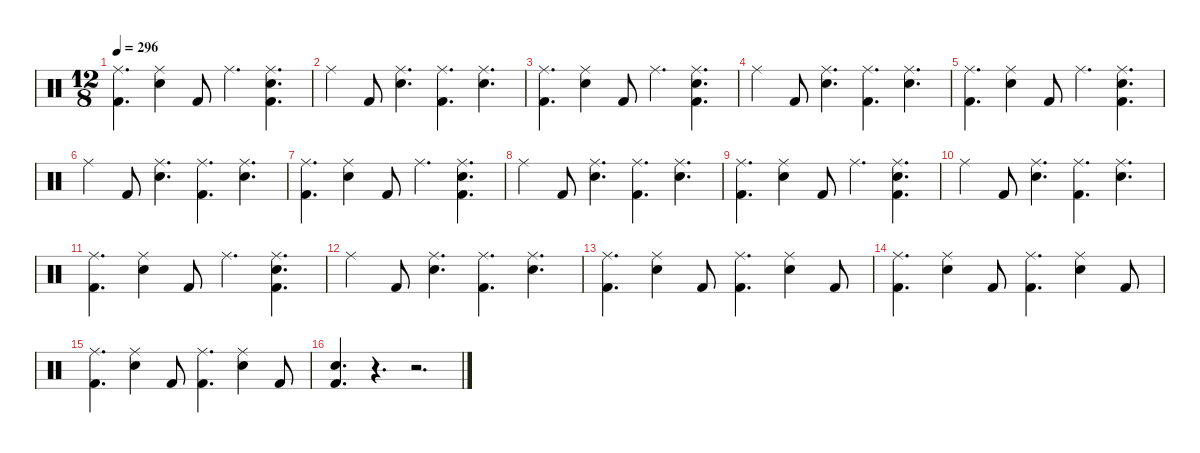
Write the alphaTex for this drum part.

\hideDynamics
\bracketExtendMode nobrackets
\singleTrackTrackNamePolicy hidden
\multiTrackTrackNamePolicy hidden
\firstSystemTrackNameMode fullname
\firstSystemTrackNameOrientation horizontal
\otherSystemsTrackNameOrientation horizontal
\track ("Drumkit" "Drums") {instrument percussion}
\staff {score}
\articulation defaults
\ts (12 8)
\tempo 296
\clef neutral
\ks c
("Ride (middle)" "Kick (hit) 2").4{d dy f beam Down} ("Ride (middle)" "Snare (hit) 2").4{beam Down} "Kick (hit) 2".8{beam Up} "Ride (middle)".4{d beam Down} ("Ride (middle)" "Snare (hit) 2" "Kick (hit) 2").4{d beam Down} |
"Ride (middle)".4{beam Down} "Kick (hit) 2".8{beam Up} ("Ride (middle)" "Snare (hit) 2").4{d beam Down} ("Ride (middle)" "Kick (hit) 2").4{d beam Down} ("Ride (middle)" "Snare (hit) 2").4{d beam Down} |
("Ride (middle)" "Kick (hit) 2").4{d beam Down} ("Ride (middle)" "Snare (hit) 2").4{beam Down} "Kick (hit) 2".8{beam Up} "Ride (middle)".4{d beam Down} ("Ride (middle)" "Snare (hit) 2" "Kick (hit) 2").4{d beam Down} |
"Ride (middle)".4{beam Down} "Kick (hit) 2".8{beam Up} ("Ride (middle)" "Snare (hit) 2").4{d beam Down} ("Ride (middle)" "Kick (hit) 2").4{d beam Down} ("Ride (middle)" "Snare (hit) 2").4{d beam Down} |
("Ride (middle)" "Kick (hit) 2").4{d beam Down} ("Ride (middle)" "Snare (hit) 2").4{beam Down} "Kick (hit) 2".8{beam Up} "Ride (middle)".4{d beam Down} ("Ride (middle)" "Snare (hit) 2" "Kick (hit) 2").4{d beam Down} |
"Ride (middle)".4{beam Down} "Kick (hit) 2".8{beam Up} ("Ride (middle)" "Snare (hit) 2").4{d beam Down} ("Ride (middle)" "Kick (hit) 2").4{d beam Down} ("Ride (middle)" "Snare (hit) 2").4{d beam Down} |
("Ride (middle)" "Kick (hit) 2").4{d beam Down} ("Ride (middle)" "Snare (hit) 2").4{beam Down} "Kick (hit) 2".8{beam Up} "Ride (middle)".4{d beam Down} ("Ride (middle)" "Snare (hit) 2" "Kick (hit) 2").4{d beam Down} |
"Ride (middle)".4{beam Down} "Kick (hit) 2".8{beam Up} ("Ride (middle)" "Snare (hit) 2").4{d beam Down} ("Ride (middle)" "Kick (hit) 2").4{d beam Down} ("Ride (middle)" "Snare (hit) 2").4{d beam Down} |
("Ride (middle)" "Kick (hit) 2").4{d beam Down} ("Ride (middle)" "Snare (hit) 2").4{beam Down} "Kick (hit) 2".8{beam Up} "Ride (middle)".4{d beam Down} ("Ride (middle)" "Snare (hit) 2" "Kick (hit) 2").4{d beam Down} |
"Ride (middle)".4{beam Down} "Kick (hit) 2".8{beam Up} ("Ride (middle)" "Snare (hit) 2").4{d beam Down} ("Ride (middle)" "Kick (hit) 2").4{d beam Down} ("Ride (middle)" "Snare (hit) 2").4{d beam Down} |
("Ride (middle)" "Kick (hit) 2").4{d beam Down} ("Ride (middle)" "Snare (hit) 2").4{beam Down} "Kick (hit) 2".8{beam Up} "Ride (middle)".4{d beam Down} ("Ride (middle)" "Snare (hit) 2" "Kick (hit) 2").4{d beam Down} |
"Ride (middle)".4{beam Down} "Kick (hit) 2".8{beam Up} ("Ride (middle)" "Snare (hit) 2").4{d beam Down} ("Ride (middle)" "Kick (hit) 2").4{d beam Down} ("Ride (middle)" "Snare (hit) 2").4{d beam Down} |
("Ride (middle)" "Kick (hit) 2").4{d beam Down} ("Ride (middle)" "Snare (hit) 2").4{beam Down} "Kick (hit) 2".8{beam Up} ("Ride (middle)" "Kick (hit) 2").4{d beam Down} ("Ride (middle)" "Snare (hit) 2").4{beam Down} "Kick (hit) 2".8{beam Up} |
("Ride (middle)" "Kick (hit) 2").4{d beam Down} ("Ride (middle)" "Snare (hit) 2").4{beam Down} "Kick (hit) 2".8{beam Up} ("Ride (middle)" "Kick (hit) 2").4{d beam Down} ("Ride (middle)" "Snare (hit) 2").4{beam Down} "Kick (hit) 2".8{beam Up} |
("Ride (middle)" "Kick (hit) 2").4{d beam Down} ("Ride (middle)" "Snare (hit) 2").4{beam Down} "Kick (hit) 2".8{beam Up} ("Ride (middle)" "Kick (hit) 2").4{d beam Down} ("Ride (middle)" "Snare (hit) 2").4{beam Down} "Kick (hit) 2".8{beam Up} |
("Snare (hit) 2" "Kick (hit) 2").4{d beam Up} r.4{d beam Up} r.2{d beam Up}
